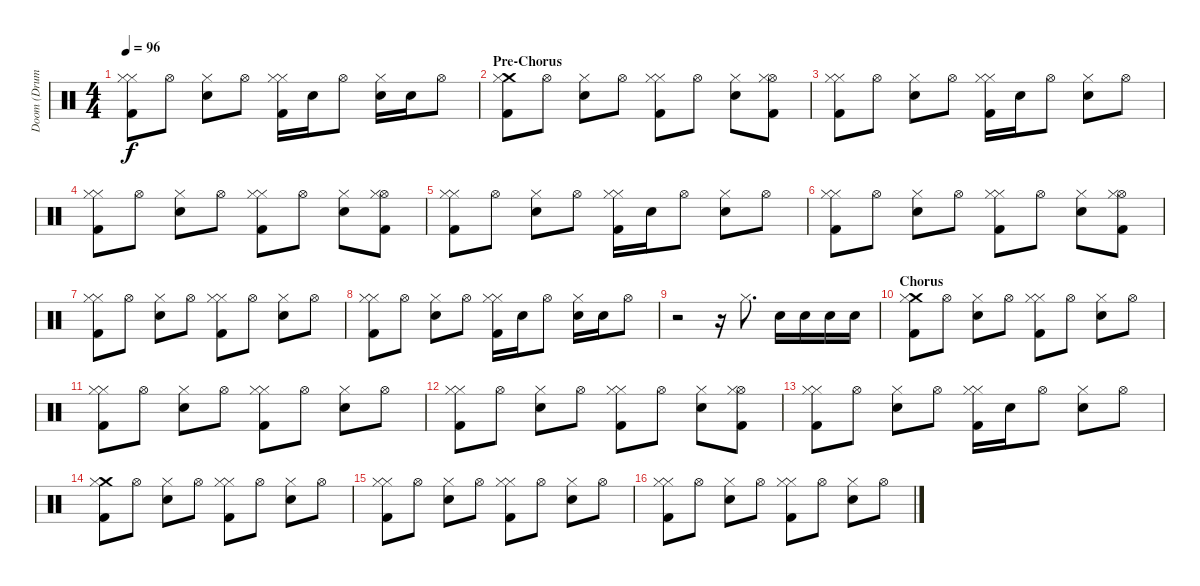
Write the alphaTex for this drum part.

\track ("Doom (Drums)" "Doom (Drum") {instrument percussion}
\staff {score}
\articulation defaults
\ts (4 4)
\tempo 96
\clef neutral
\ks c
("Hi-Hat (closed)" "Hi-Hat (closed)" "Kick (hit) 2").8{dy f} "Hi-Hat (open)".8 ("Hi-Hat (closed)" "Electric Snare (hit)").8 "Hi-Hat (open)".8 ("Hi-Hat (closed)" "Hi-Hat (closed)" "Kick (hit) 2").16 "Electric Snare (hit)".16 "Hi-Hat (open)".8 ("Hi-Hat (closed)" "Electric Snare (hit)").16 "Electric Snare (hit)".16 "Hi-Hat (open)".8 |
\section ("" "Pre-Chorus")
("Crash medium (hit)" "Hi-Hat (closed)" "Kick (hit) 2").8 "Hi-Hat (open)".8 ("Hi-Hat (closed)" "Electric Snare (hit)").8 "Hi-Hat (open)".8 ("Hi-Hat (closed)" "Hi-Hat (closed)" "Kick (hit) 2").8 "Hi-Hat (open)".8 ("Hi-Hat (closed)" "Electric Snare (hit)").8 ("Hi-Hat (open)" "Hi-Hat (closed)" "Kick (hit) 2").8 |
("Hi-Hat (closed)" "Hi-Hat (closed)" "Kick (hit) 2").8 "Hi-Hat (open)".8 ("Hi-Hat (closed)" "Electric Snare (hit)").8 "Hi-Hat (open)".8 ("Hi-Hat (closed)" "Hi-Hat (closed)" "Kick (hit) 2").16 "Electric Snare (hit)".16 "Hi-Hat (open)".8 ("Hi-Hat (closed)" "Electric Snare (hit)").8 "Hi-Hat (open)".8 |
("Hi-Hat (closed)" "Hi-Hat (closed)" "Kick (hit) 2").8 "Hi-Hat (open)".8 ("Hi-Hat (closed)" "Electric Snare (hit)").8 "Hi-Hat (open)".8 ("Hi-Hat (closed)" "Hi-Hat (closed)" "Kick (hit) 2").8 "Hi-Hat (open)".8 ("Hi-Hat (closed)" "Electric Snare (hit)").8 ("Hi-Hat (open)" "Hi-Hat (closed)" "Kick (hit) 2").8 |
("Hi-Hat (closed)" "Hi-Hat (closed)" "Kick (hit) 2").8 "Hi-Hat (open)".8 ("Hi-Hat (closed)" "Electric Snare (hit)").8 "Hi-Hat (open)".8 ("Hi-Hat (closed)" "Hi-Hat (closed)" "Kick (hit) 2").16 "Electric Snare (hit)".16 "Hi-Hat (open)".8 ("Hi-Hat (closed)" "Electric Snare (hit)").8 "Hi-Hat (open)".8 |
("Hi-Hat (closed)" "Hi-Hat (closed)" "Kick (hit) 2").8 "Hi-Hat (open)".8 ("Hi-Hat (closed)" "Electric Snare (hit)").8 "Hi-Hat (open)".8 ("Hi-Hat (closed)" "Hi-Hat (closed)" "Kick (hit) 2").8 "Hi-Hat (open)".8 ("Hi-Hat (closed)" "Electric Snare (hit)").8 ("Hi-Hat (open)" "Hi-Hat (closed)" "Kick (hit) 2").8 |
("Hi-Hat (closed)" "Hi-Hat (closed)" "Kick (hit) 2").8 "Hi-Hat (open)".8 ("Hi-Hat (closed)" "Electric Snare (hit)").8 "Hi-Hat (open)".8 ("Hi-Hat (closed)" "Hi-Hat (closed)" "Kick (hit) 2").8 "Hi-Hat (open)".8 ("Hi-Hat (closed)" "Electric Snare (hit)").8 "Hi-Hat (open)".8 |
("Hi-Hat (closed)" "Hi-Hat (closed)" "Kick (hit) 2").8 "Hi-Hat (open)".8 ("Hi-Hat (closed)" "Electric Snare (hit)").8 "Hi-Hat (open)".8 ("Hi-Hat (closed)" "Hi-Hat (closed)" "Kick (hit) 2").16 "Electric Snare (hit)".16 "Hi-Hat (open)".8 ("Hi-Hat (closed)" "Electric Snare (hit)").16 "Electric Snare (hit)".16 "Hi-Hat (open)".8 |
r.2 r.16 "Hi-Hat (closed)".8{d} "Electric Snare (hit)".16 "Electric Snare (hit)".16 "Electric Snare (hit)".16 "Electric Snare (hit)".16 |
\section ("" "Chorus")
("Crash medium (hit)" "Hi-Hat (closed)" "Kick (hit) 2").8 "Hi-Hat (open)".8 ("Hi-Hat (closed)" "Electric Snare (hit)").8 "Hi-Hat (open)".8 ("Hi-Hat (closed)" "Hi-Hat (closed)" "Kick (hit) 2").8 "Hi-Hat (open)".8 ("Hi-Hat (closed)" "Electric Snare (hit)").8 "Hi-Hat (open)".8 |
("Hi-Hat (closed)" "Hi-Hat (closed)" "Kick (hit) 2").8 "Hi-Hat (open)".8 ("Hi-Hat (closed)" "Electric Snare (hit)").8 "Hi-Hat (open)".8 ("Hi-Hat (closed)" "Hi-Hat (closed)" "Kick (hit) 2").8 "Hi-Hat (open)".8 ("Hi-Hat (closed)" "Electric Snare (hit)").8 "Hi-Hat (open)".8 |
("Hi-Hat (closed)" "Hi-Hat (closed)" "Kick (hit) 2").8 "Hi-Hat (open)".8 ("Hi-Hat (closed)" "Electric Snare (hit)").8 "Hi-Hat (open)".8 ("Hi-Hat (closed)" "Hi-Hat (closed)" "Kick (hit) 2").8 "Hi-Hat (open)".8 ("Hi-Hat (closed)" "Electric Snare (hit)").8 ("Hi-Hat (open)" "Hi-Hat (closed)" "Kick (hit) 2").8 |
("Hi-Hat (closed)" "Hi-Hat (closed)" "Kick (hit) 2").8 "Hi-Hat (open)".8 ("Hi-Hat (closed)" "Electric Snare (hit)").8 "Hi-Hat (open)".8 ("Hi-Hat (closed)" "Hi-Hat (closed)" "Kick (hit) 2").16 "Electric Snare (hit)".16 "Hi-Hat (open)".8 ("Hi-Hat (closed)" "Electric Snare (hit)").8 "Hi-Hat (open)".8 |
("Crash medium (hit)" "Hi-Hat (closed)" "Kick (hit) 2").8 "Hi-Hat (open)".8 ("Hi-Hat (closed)" "Electric Snare (hit)").8 "Hi-Hat (open)".8 ("Hi-Hat (closed)" "Hi-Hat (closed)" "Kick (hit) 2").8 "Hi-Hat (open)".8 ("Hi-Hat (closed)" "Electric Snare (hit)").8 "Hi-Hat (open)".8 |
("Hi-Hat (closed)" "Hi-Hat (closed)" "Kick (hit) 2").8 "Hi-Hat (open)".8 ("Hi-Hat (closed)" "Electric Snare (hit)").8 "Hi-Hat (open)".8 ("Hi-Hat (closed)" "Hi-Hat (closed)" "Kick (hit) 2").8 "Hi-Hat (open)".8 ("Hi-Hat (closed)" "Electric Snare (hit)").8 "Hi-Hat (open)".8 |
("Hi-Hat (closed)" "Hi-Hat (closed)" "Kick (hit) 2").8 "Hi-Hat (open)".8 ("Hi-Hat (closed)" "Electric Snare (hit)").8 "Hi-Hat (open)".8 ("Hi-Hat (closed)" "Hi-Hat (closed)" "Kick (hit) 2").8 "Hi-Hat (open)".8 ("Hi-Hat (closed)" "Electric Snare (hit)").8 "Hi-Hat (open)".8
